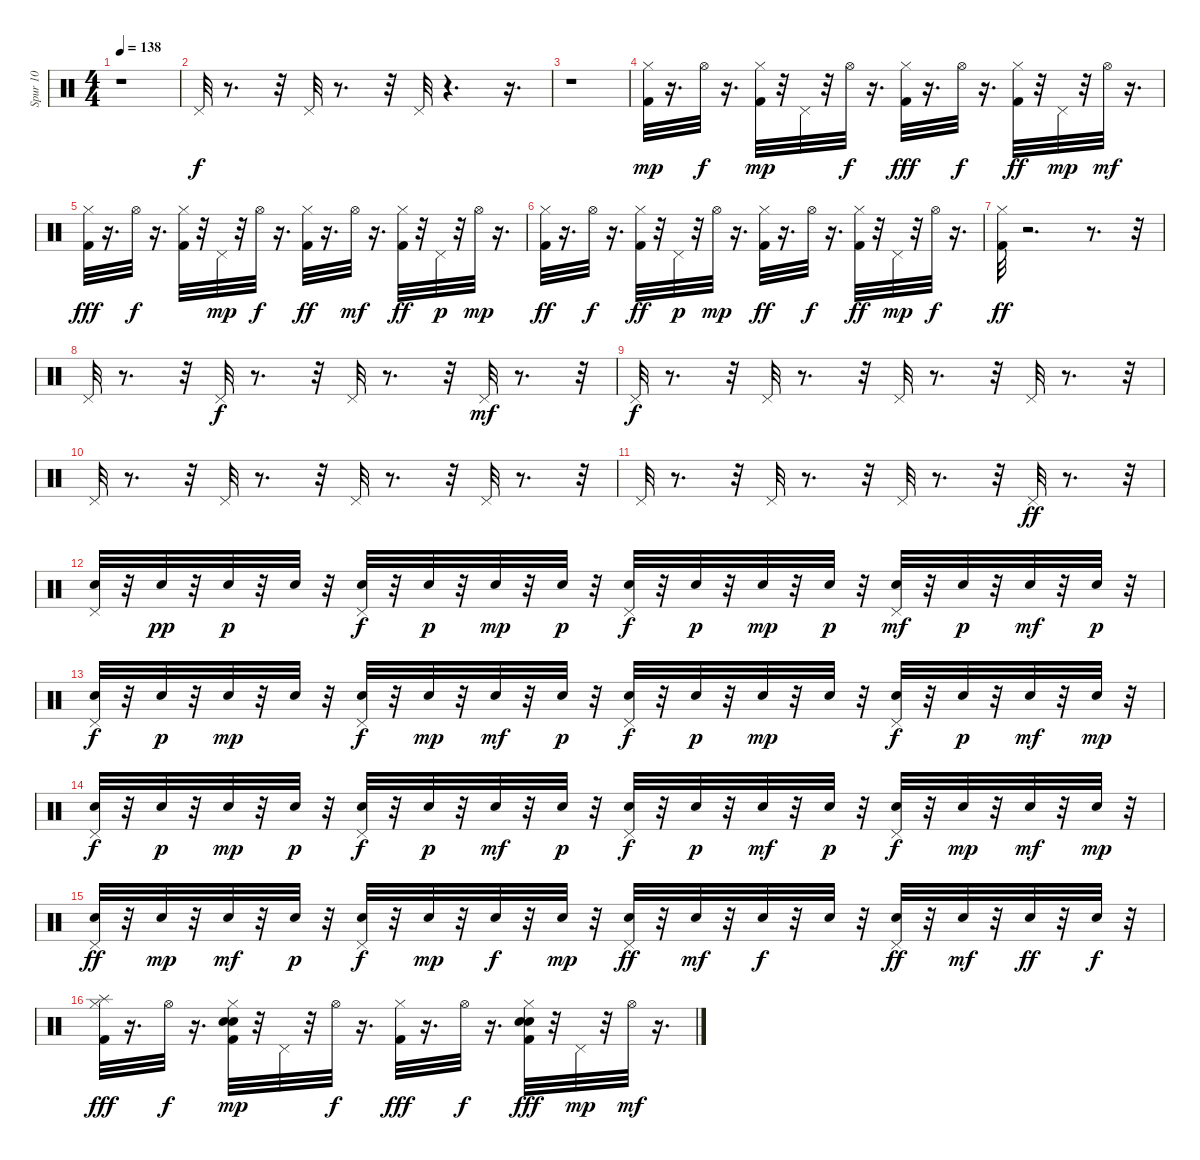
\track ("Spur 10" "Spur 10") {instrument percussion}
\staff {score}
\articulation defaults
\ts (4 4)
\tempo 138
\clef neutral
\ks c
r.1{dy f} |
"Pedal Hi-Hat (hit)".32 r.8{d} r.32 "Pedal Hi-Hat (hit)".32 r.8{d} r.32 "Pedal Hi-Hat (hit)".32 r.4{d} r.16{d} |
r.1 |
("Kick (hit) 2" "Hi-Hat (closed)").32{dy mp} r.16{d} "Hi-Hat (open)".32{dy f} r.16{d} ("Kick (hit) 2" "Hi-Hat (closed)").32{dy mp} r.32 "Pedal Hi-Hat (hit)".32 r.32 "Hi-Hat (open)".32{dy f} r.16{d} ("Kick (hit) 2" "Hi-Hat (closed)").32{dy fff} r.16{d} "Hi-Hat (open)".32{dy f} r.16{d} ("Kick (hit) 2" "Hi-Hat (closed)").32{dy ff} r.32 "Pedal Hi-Hat (hit)".32{dy mp} r.32 "Hi-Hat (open)".32{dy mf} r.16{d} |
("Kick (hit) 2" "Hi-Hat (closed)").32{dy fff} r.16{d} "Hi-Hat (open)".32{dy f} r.16{d} ("Kick (hit) 2" "Hi-Hat (closed)").32 r.32 "Pedal Hi-Hat (hit)".32{dy mp} r.32 "Hi-Hat (open)".32{dy f} r.16{d} ("Kick (hit) 2" "Hi-Hat (closed)").32{dy ff} r.16{d} "Hi-Hat (open)".32{dy mf} r.16{d} ("Kick (hit) 2" "Hi-Hat (closed)").32{dy ff} r.32 "Pedal Hi-Hat (hit)".32{dy p} r.32 "Hi-Hat (open)".32{dy mp} r.16{d} |
("Kick (hit) 2" "Hi-Hat (closed)").32{dy ff} r.16{d} "Hi-Hat (open)".32{dy f} r.16{d} ("Kick (hit) 2" "Hi-Hat (closed)").32{dy ff} r.32 "Pedal Hi-Hat (hit)".32{dy p} r.32 "Hi-Hat (open)".32{dy mp} r.16{d} ("Kick (hit) 2" "Hi-Hat (closed)").32{dy ff} r.16{d} "Hi-Hat (open)".32{dy f} r.16{d} ("Kick (hit) 2" "Hi-Hat (closed)").32{dy ff} r.32 "Pedal Hi-Hat (hit)".32{dy mp} r.32 "Hi-Hat (open)".32{dy f} r.16{d} |
("Kick (hit) 2" "Hi-Hat (closed)").32{dy ff} r.2{d} r.8{d} r.32 |
"Pedal Hi-Hat (hit)".32 r.8{d} r.32 "Pedal Hi-Hat (hit)".32{dy f} r.8{d} r.32 "Pedal Hi-Hat (hit)".32 r.8{d} r.32 "Pedal Hi-Hat (hit)".32{dy mf} r.8{d} r.32 |
"Pedal Hi-Hat (hit)".32{dy f} r.8{d} r.32 "Pedal Hi-Hat (hit)".32 r.8{d} r.32 "Pedal Hi-Hat (hit)".32 r.8{d} r.32 "Pedal Hi-Hat (hit)".32 r.8{d} r.32 |
"Pedal Hi-Hat (hit)".32 r.8{d} r.32 "Pedal Hi-Hat (hit)".32 r.8{d} r.32 "Pedal Hi-Hat (hit)".32 r.8{d} r.32 "Pedal Hi-Hat (hit)".32 r.8{d} r.32 |
"Pedal Hi-Hat (hit)".32 r.8{d} r.32 "Pedal Hi-Hat (hit)".32 r.8{d} r.32 "Pedal Hi-Hat (hit)".32 r.8{d} r.32 "Pedal Hi-Hat (hit)".32{dy ff} r.8{d} r.32 |
("Snare (hit) 2" "Pedal Hi-Hat (hit)").32 r.32 "Snare (hit) 2".32{dy pp} r.32 "Snare (hit) 2".32{dy p} r.32 "Snare (hit) 2".32 r.32 ("Snare (hit) 2" "Pedal Hi-Hat (hit)").32{dy f} r.32 "Snare (hit) 2".32{dy p} r.32 "Snare (hit) 2".32{dy mp} r.32 "Snare (hit) 2".32{dy p} r.32 ("Snare (hit) 2" "Pedal Hi-Hat (hit)").32{dy f} r.32 "Snare (hit) 2".32{dy p} r.32 "Snare (hit) 2".32{dy mp} r.32 "Snare (hit) 2".32{dy p} r.32 ("Snare (hit) 2" "Pedal Hi-Hat (hit)").32{dy mf} r.32 "Snare (hit) 2".32{dy p} r.32 "Snare (hit) 2".32{dy mf} r.32 "Snare (hit) 2".32{dy p} r.32 |
("Snare (hit) 2" "Pedal Hi-Hat (hit)").32{dy f} r.32 "Snare (hit) 2".32{dy p} r.32 "Snare (hit) 2".32{dy mp} r.32 "Snare (hit) 2".32 r.32 ("Snare (hit) 2" "Pedal Hi-Hat (hit)").32{dy f} r.32 "Snare (hit) 2".32{dy mp} r.32 "Snare (hit) 2".32{dy mf} r.32 "Snare (hit) 2".32{dy p} r.32 ("Snare (hit) 2" "Pedal Hi-Hat (hit)").32{dy f} r.32 "Snare (hit) 2".32{dy p} r.32 "Snare (hit) 2".32{dy mp} r.32 "Snare (hit) 2".32 r.32 ("Snare (hit) 2" "Pedal Hi-Hat (hit)").32{dy f} r.32 "Snare (hit) 2".32{dy p} r.32 "Snare (hit) 2".32{dy mf} r.32 "Snare (hit) 2".32{dy mp} r.32 |
("Snare (hit) 2" "Pedal Hi-Hat (hit)").32{dy f} r.32 "Snare (hit) 2".32{dy p} r.32 "Snare (hit) 2".32{dy mp} r.32 "Snare (hit) 2".32{dy p} r.32 ("Snare (hit) 2" "Pedal Hi-Hat (hit)").32{dy f} r.32 "Snare (hit) 2".32{dy p} r.32 "Snare (hit) 2".32{dy mf} r.32 "Snare (hit) 2".32{dy p} r.32 ("Snare (hit) 2" "Pedal Hi-Hat (hit)").32{dy f} r.32 "Snare (hit) 2".32{dy p} r.32 "Snare (hit) 2".32{dy mf} r.32 "Snare (hit) 2".32{dy p} r.32 ("Snare (hit) 2" "Pedal Hi-Hat (hit)").32{dy f} r.32 "Snare (hit) 2".32{dy mp} r.32 "Snare (hit) 2".32{dy mf} r.32 "Snare (hit) 2".32{dy mp} r.32 |
("Snare (hit) 2" "Pedal Hi-Hat (hit)").32{dy ff} r.32 "Snare (hit) 2".32{dy mp} r.32 "Snare (hit) 2".32{dy mf} r.32 "Snare (hit) 2".32{dy p} r.32 ("Snare (hit) 2" "Pedal Hi-Hat (hit)").32{dy f} r.32 "Snare (hit) 2".32{dy mp} r.32 "Snare (hit) 2".32{dy f} r.32 "Snare (hit) 2".32{dy mp} r.32 ("Snare (hit) 2" "Pedal Hi-Hat (hit)").32{dy ff} r.32 "Snare (hit) 2".32{dy mf} r.32 "Snare (hit) 2".32{dy f} r.32 "Snare (hit) 2".32 r.32 ("Snare (hit) 2" "Pedal Hi-Hat (hit)").32{dy ff} r.32 "Snare (hit) 2".32{dy mf} r.32 "Snare (hit) 2".32{dy ff} r.32 "Snare (hit) 2".32{dy f} r.32 |
("Kick (hit) 2" "Hi-Hat (closed)" "Splash (hit)").32{dy fff} r.16{d} "Hi-Hat (open)".32{dy f} r.16{d} ("Kick (hit) 2" "Snare (hit) 2" "Hand Clap (hit)" "Hi-Hat (closed)").32{dy mp} r.32 "Pedal Hi-Hat (hit)".32 r.32 "Hi-Hat (open)".32{dy f} r.16{d} ("Kick (hit) 2" "Hi-Hat (closed)").32{dy fff} r.16{d} "Hi-Hat (open)".32{dy f} r.16{d} ("Kick (hit) 2" "Snare (hit) 2" "Hand Clap (hit)" "Hi-Hat (closed)").32{dy fff} r.32 "Pedal Hi-Hat (hit)".32{dy mp} r.32 "Hi-Hat (open)".32{dy mf} r.16{d}
